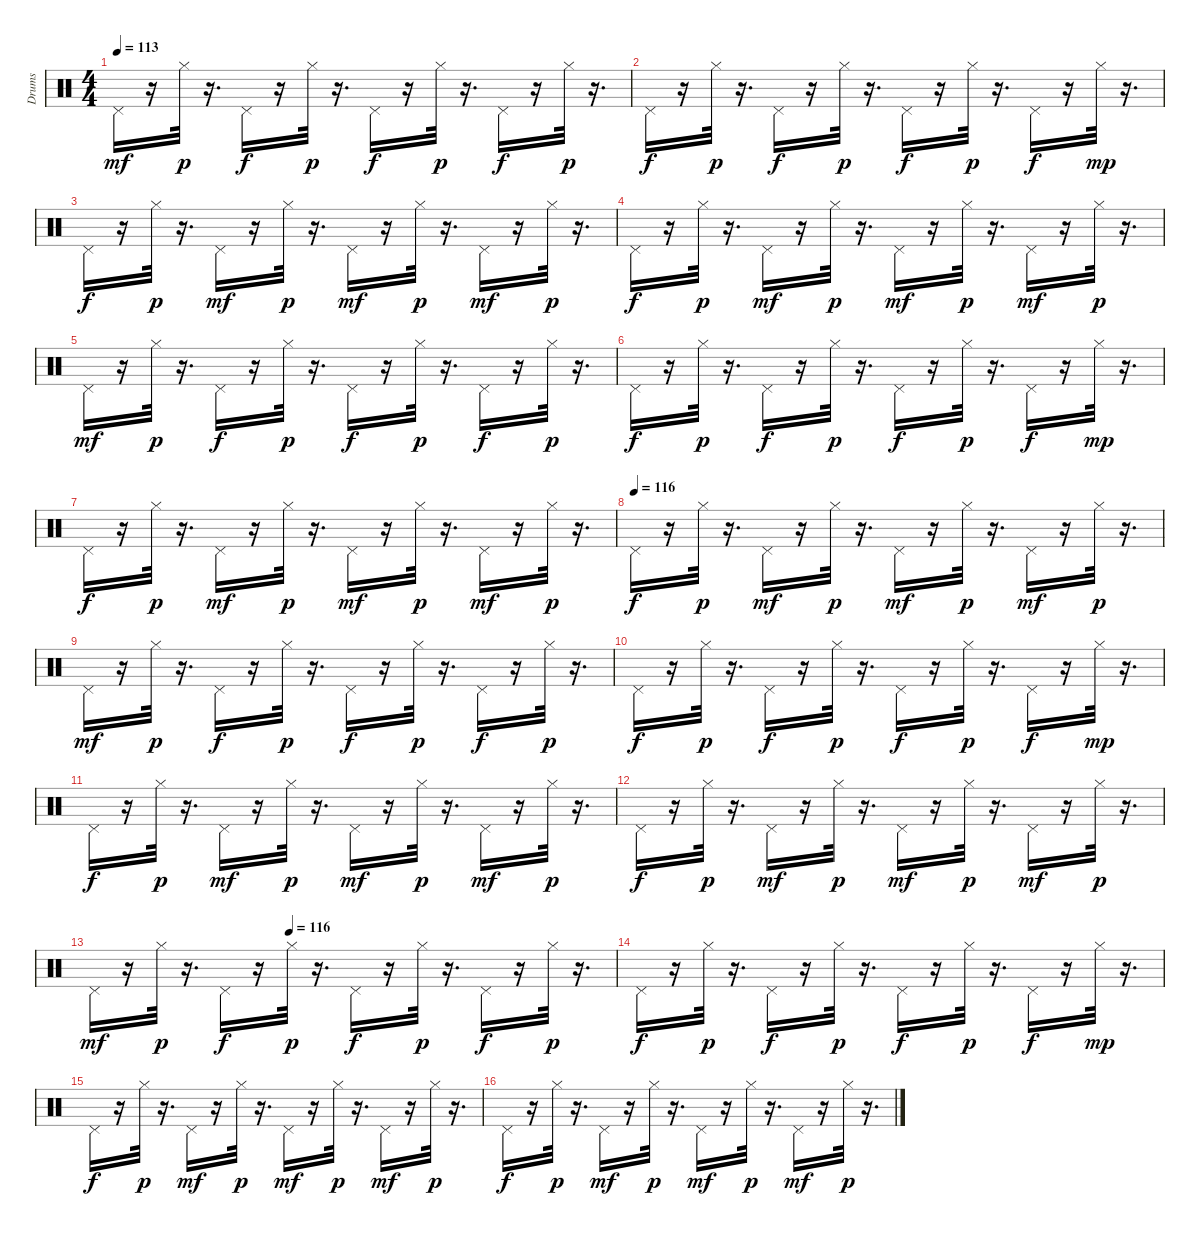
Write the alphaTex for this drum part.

\track ("Drums" "Drums") {instrument percussion}
\staff {score}
\articulation defaults
\ts (4 4)
\tempo 113
\clef neutral
\ks c "Pedal Hi-Hat (hit)".16{dy mf}
r.16 "Hi-Hat (closed)".32{dy p} r.16{d} "Pedal Hi-Hat (hit)".16{dy f} r.16 "Hi-Hat (closed)".32{dy p} r.16{d} "Pedal Hi-Hat (hit)".16{dy f} r.16 "Hi-Hat (closed)".32{dy p} r.16{d} "Pedal Hi-Hat (hit)".16{dy f} r.16 "Hi-Hat (closed)".32{dy p} r.16{d} |
"Pedal Hi-Hat (hit)".16{dy f} r.16 "Hi-Hat (closed)".32{dy p} r.16{d} "Pedal Hi-Hat (hit)".16{dy f} r.16 "Hi-Hat (closed)".32{dy p} r.16{d} "Pedal Hi-Hat (hit)".16{dy f} r.16 "Hi-Hat (closed)".32{dy p} r.16{d} "Pedal Hi-Hat (hit)".16{dy f} r.16 "Hi-Hat (closed)".32{dy mp} r.16{d} |
"Pedal Hi-Hat (hit)".16{dy f} r.16 "Hi-Hat (closed)".32{dy p} r.16{d} "Pedal Hi-Hat (hit)".16{dy mf} r.16 "Hi-Hat (closed)".32{dy p} r.16{d} "Pedal Hi-Hat (hit)".16{dy mf} r.16 "Hi-Hat (closed)".32{dy p} r.16{d} "Pedal Hi-Hat (hit)".16{dy mf} r.16 "Hi-Hat (closed)".32{dy p} r.16{d} |
"Pedal Hi-Hat (hit)".16{dy f} r.16 "Hi-Hat (closed)".32{dy p} r.16{d} "Pedal Hi-Hat (hit)".16{dy mf} r.16 "Hi-Hat (closed)".32{dy p} r.16{d} "Pedal Hi-Hat (hit)".16{dy mf} r.16 "Hi-Hat (closed)".32{dy p} r.16{d} "Pedal Hi-Hat (hit)".16{dy mf} r.16 "Hi-Hat (closed)".32{dy p} r.16{d} |
"Pedal Hi-Hat (hit)".16{dy mf} r.16 "Hi-Hat (closed)".32{dy p} r.16{d} "Pedal Hi-Hat (hit)".16{dy f} r.16 "Hi-Hat (closed)".32{dy p} r.16{d} "Pedal Hi-Hat (hit)".16{dy f} r.16 "Hi-Hat (closed)".32{dy p} r.16{d} "Pedal Hi-Hat (hit)".16{dy f} r.16 "Hi-Hat (closed)".32{dy p} r.16{d} |
"Pedal Hi-Hat (hit)".16{dy f} r.16 "Hi-Hat (closed)".32{dy p} r.16{d} "Pedal Hi-Hat (hit)".16{dy f} r.16 "Hi-Hat (closed)".32{dy p} r.16{d} "Pedal Hi-Hat (hit)".16{dy f} r.16 "Hi-Hat (closed)".32{dy p} r.16{d} "Pedal Hi-Hat (hit)".16{dy f} r.16 "Hi-Hat (closed)".32{dy mp} r.16{d} |
"Pedal Hi-Hat (hit)".16{dy f} r.16 "Hi-Hat (closed)".32{dy p} r.16{d} "Pedal Hi-Hat (hit)".16{dy mf} r.16 "Hi-Hat (closed)".32{dy p} r.16{d} "Pedal Hi-Hat (hit)".16{dy mf} r.16 "Hi-Hat (closed)".32{dy p} r.16{d} "Pedal Hi-Hat (hit)".16{dy mf} r.16 "Hi-Hat (closed)".32{dy p} r.16{d} |
\tempo (116)
"Pedal Hi-Hat (hit)".16{dy f} r.16 "Hi-Hat (closed)".32{dy p} r.16{d} "Pedal Hi-Hat (hit)".16{dy mf} r.16 "Hi-Hat (closed)".32{dy p} r.16{d} "Pedal Hi-Hat (hit)".16{dy mf} r.16 "Hi-Hat (closed)".32{dy p} r.16{d} "Pedal Hi-Hat (hit)".16{dy mf} r.16 "Hi-Hat (closed)".32{dy p} r.16{d} |
"Pedal Hi-Hat (hit)".16{dy mf} r.16 "Hi-Hat (closed)".32{dy p} r.16{d} "Pedal Hi-Hat (hit)".16{dy f} r.16 "Hi-Hat (closed)".32{dy p} r.16{d} "Pedal Hi-Hat (hit)".16{dy f} r.16 "Hi-Hat (closed)".32{dy p} r.16{d} "Pedal Hi-Hat (hit)".16{dy f} r.16 "Hi-Hat (closed)".32{dy p} r.16{d} |
"Pedal Hi-Hat (hit)".16{dy f} r.16 "Hi-Hat (closed)".32{dy p} r.16{d} "Pedal Hi-Hat (hit)".16{dy f} r.16 "Hi-Hat (closed)".32{dy p} r.16{d} "Pedal Hi-Hat (hit)".16{dy f} r.16 "Hi-Hat (closed)".32{dy p} r.16{d} "Pedal Hi-Hat (hit)".16{dy f} r.16 "Hi-Hat (closed)".32{dy mp} r.16{d} |
"Pedal Hi-Hat (hit)".16{dy f} r.16 "Hi-Hat (closed)".32{dy p} r.16{d} "Pedal Hi-Hat (hit)".16{dy mf} r.16 "Hi-Hat (closed)".32{dy p} r.16{d} "Pedal Hi-Hat (hit)".16{dy mf} r.16 "Hi-Hat (closed)".32{dy p} r.16{d} "Pedal Hi-Hat (hit)".16{dy mf} r.16 "Hi-Hat (closed)".32{dy p} r.16{d} |
"Pedal Hi-Hat (hit)".16{dy f} r.16 "Hi-Hat (closed)".32{dy p} r.16{d} "Pedal Hi-Hat (hit)".16{dy mf} r.16 "Hi-Hat (closed)".32{dy p} r.16{d} "Pedal Hi-Hat (hit)".16{dy mf} r.16 "Hi-Hat (closed)".32{dy p} r.16{d} "Pedal Hi-Hat (hit)".16{dy mf} r.16 "Hi-Hat (closed)".32{dy p} r.16{d} |
\tempo (116 0.375)
"Pedal Hi-Hat (hit)".16{dy mf} r.16 "Hi-Hat (closed)".32{dy p} r.16{d} "Pedal Hi-Hat (hit)".16{dy f} r.16 "Hi-Hat (closed)".32{dy p} r.16{d} "Pedal Hi-Hat (hit)".16{dy f} r.16 "Hi-Hat (closed)".32{dy p} r.16{d} "Pedal Hi-Hat (hit)".16{dy f} r.16 "Hi-Hat (closed)".32{dy p} r.16{d} |
"Pedal Hi-Hat (hit)".16{dy f} r.16 "Hi-Hat (closed)".32{dy p} r.16{d} "Pedal Hi-Hat (hit)".16{dy f} r.16 "Hi-Hat (closed)".32{dy p} r.16{d} "Pedal Hi-Hat (hit)".16{dy f} r.16 "Hi-Hat (closed)".32{dy p} r.16{d} "Pedal Hi-Hat (hit)".16{dy f} r.16 "Hi-Hat (closed)".32{dy mp} r.16{d} |
"Pedal Hi-Hat (hit)".16{dy f} r.16 "Hi-Hat (closed)".32{dy p} r.16{d} "Pedal Hi-Hat (hit)".16{dy mf} r.16 "Hi-Hat (closed)".32{dy p} r.16{d} "Pedal Hi-Hat (hit)".16{dy mf} r.16 "Hi-Hat (closed)".32{dy p} r.16{d} "Pedal Hi-Hat (hit)".16{dy mf} r.16 "Hi-Hat (closed)".32{dy p} r.16{d} |
"Pedal Hi-Hat (hit)".16{dy f} r.16 "Hi-Hat (closed)".32{dy p} r.16{d} "Pedal Hi-Hat (hit)".16{dy mf} r.16 "Hi-Hat (closed)".32{dy p} r.16{d} "Pedal Hi-Hat (hit)".16{dy mf} r.16 "Hi-Hat (closed)".32{dy p} r.16{d} "Pedal Hi-Hat (hit)".16{dy mf} r.16 "Hi-Hat (closed)".32{dy p} r.16{d}
